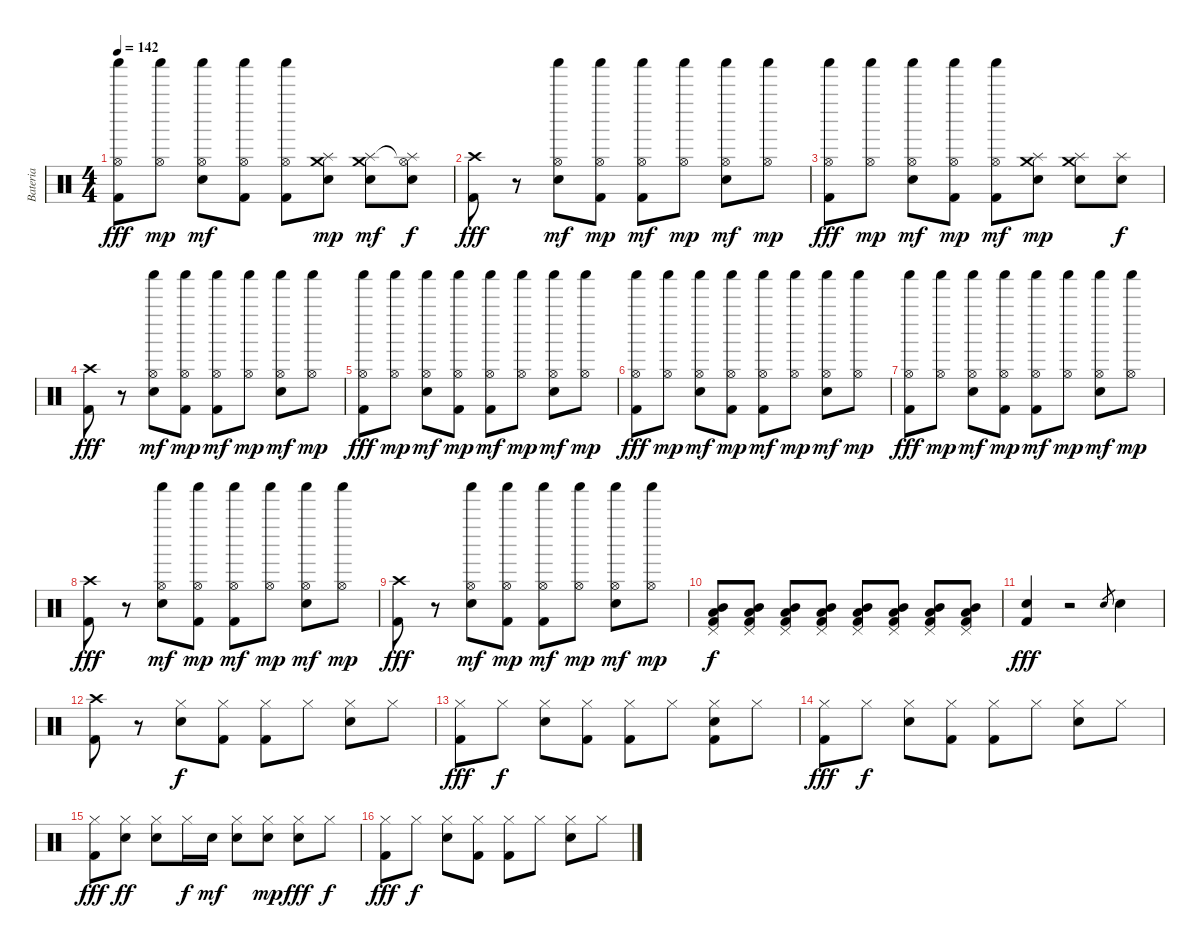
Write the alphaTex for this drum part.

\track ("Bateria" "Bateria") {instrument percussion}
\staff {score}
\articulation defaults
\ts (4 4)
\tempo 142
\clef neutral
\ks c
("Shaker (hit)" "Hi-Hat (open)" "Kick (hit) 2").8{dy fff} ("Shaker (hit)" "Hi-Hat (open)").8{dy mp} ("Shaker (hit)" "Hi-Hat (open)" "Electric Snare (hit)").8{dy mf} ("Shaker (hit)" "Hi-Hat (open)" "Kick (hit) 2").8 ("Shaker (hit)" "Hi-Hat (open)" "Kick (hit) 2").8 ("Crash medium (hit)" "Splash (hit)" "Electric Snare (hit)").8{dy mp} ("Crash medium (hit)" "Splash (hit)" "Electric Snare (hit)").8{dy mf} ("Splash (hit)" "Hi-Hat (open)"{t} "Electric Snare (hit)").8{dy f} |
("Crash high (hit)" "Kick (hit) 2").8{dy fff} r.8 ("Shaker (hit)" "Hi-Hat (open)" "Electric Snare (hit)").8{dy mf} ("Shaker (hit)" "Hi-Hat (open)" "Kick (hit) 2").8{dy mp} ("Shaker (hit)" "Hi-Hat (open)" "Kick (hit) 2").8{dy mf} ("Shaker (hit)" "Hi-Hat (open)").8{dy mp} ("Shaker (hit)" "Hi-Hat (open)" "Electric Snare (hit)").8{dy mf} ("Shaker (hit)" "Hi-Hat (open)").8{dy mp} |
("Shaker (hit)" "Hi-Hat (open)" "Kick (hit) 2").8{dy fff} ("Shaker (hit)" "Hi-Hat (open)").8{dy mp} ("Shaker (hit)" "Hi-Hat (open)" "Electric Snare (hit)").8{dy mf} ("Shaker (hit)" "Hi-Hat (open)" "Kick (hit) 2").8{dy mp} ("Shaker (hit)" "Hi-Hat (open)" "Kick (hit) 2").8{dy mf} ("Crash medium (hit)" "Splash (hit)" "Electric Snare (hit)").8{dy mp} ("Crash medium (hit)" "Splash (hit)" "Electric Snare (hit)").8 ("Splash (hit)" "Electric Snare (hit)").8{dy f} |
("Crash high (hit)" "Kick (hit) 2").8{dy fff} r.8 ("Shaker (hit)" "Hi-Hat (open)" "Electric Snare (hit)").8{dy mf} ("Shaker (hit)" "Hi-Hat (open)" "Kick (hit) 2").8{dy mp} ("Shaker (hit)" "Hi-Hat (open)" "Kick (hit) 2").8{dy mf} ("Shaker (hit)" "Hi-Hat (open)").8{dy mp} ("Shaker (hit)" "Hi-Hat (open)" "Electric Snare (hit)").8{dy mf} ("Shaker (hit)" "Hi-Hat (open)").8{dy mp} |
("Shaker (hit)" "Hi-Hat (open)" "Kick (hit) 2").8{dy fff} ("Shaker (hit)" "Hi-Hat (open)").8{dy mp} ("Shaker (hit)" "Hi-Hat (open)" "Electric Snare (hit)").8{dy mf} ("Shaker (hit)" "Hi-Hat (open)" "Kick (hit) 2").8{dy mp} ("Shaker (hit)" "Hi-Hat (open)" "Kick (hit) 2").8{dy mf} ("Shaker (hit)" "Hi-Hat (open)").8{dy mp} ("Shaker (hit)" "Hi-Hat (open)" "Electric Snare (hit)").8{dy mf} ("Shaker (hit)" "Hi-Hat (open)").8{dy mp} |
("Shaker (hit)" "Hi-Hat (open)" "Kick (hit) 2").8{dy fff} ("Shaker (hit)" "Hi-Hat (open)").8{dy mp} ("Shaker (hit)" "Hi-Hat (open)" "Electric Snare (hit)").8{dy mf} ("Shaker (hit)" "Hi-Hat (open)" "Kick (hit) 2").8{dy mp} ("Shaker (hit)" "Hi-Hat (open)" "Kick (hit) 2").8{dy mf} ("Shaker (hit)" "Hi-Hat (open)").8{dy mp} ("Shaker (hit)" "Hi-Hat (open)" "Electric Snare (hit)").8{dy mf} ("Shaker (hit)" "Hi-Hat (open)").8{dy mp} |
("Shaker (hit)" "Hi-Hat (open)" "Kick (hit) 2").8{dy fff} ("Shaker (hit)" "Hi-Hat (open)").8{dy mp} ("Shaker (hit)" "Hi-Hat (open)" "Electric Snare (hit)").8{dy mf} ("Shaker (hit)" "Hi-Hat (open)" "Kick (hit) 2").8{dy mp} ("Shaker (hit)" "Hi-Hat (open)" "Kick (hit) 2").8{dy mf} ("Shaker (hit)" "Hi-Hat (open)").8{dy mp} ("Shaker (hit)" "Hi-Hat (open)" "Electric Snare (hit)").8{dy mf} ("Shaker (hit)" "Hi-Hat (open)").8{dy mp} |
("Crash high (hit)" "Kick (hit) 2").8{dy fff} r.8 ("Shaker (hit)" "Hi-Hat (open)" "Electric Snare (hit)").8{dy mf} ("Shaker (hit)" "Hi-Hat (open)" "Kick (hit) 2").8{dy mp} ("Shaker (hit)" "Hi-Hat (open)" "Kick (hit) 2").8{dy mf} ("Shaker (hit)" "Hi-Hat (open)").8{dy mp} ("Shaker (hit)" "Hi-Hat (open)" "Electric Snare (hit)").8{dy mf} ("Shaker (hit)" "Hi-Hat (open)").8{dy mp} |
("Crash high (hit)" "Kick (hit) 2").8{dy fff} r.8 ("Shaker (hit)" "Hi-Hat (open)" "Electric Snare (hit)").8{dy mf} ("Shaker (hit)" "Hi-Hat (open)" "Kick (hit) 2").8{dy mp} ("Shaker (hit)" "Hi-Hat (open)" "Kick (hit) 2").8{dy mf} ("Shaker (hit)" "Hi-Hat (open)").8{dy mp} ("Shaker (hit)" "Hi-Hat (open)" "Electric Snare (hit)").8{dy mf} ("Shaker (hit)" "Hi-Hat (open)").8{dy mp} |
("Low Tom (hit)" "Mid Tom (hit)" "Pedal Hi-Hat (hit)" "Kick (hit) 2").8{dy f} ("Low Tom (hit)" "Mid Tom (hit)" "Pedal Hi-Hat (hit)" "Kick (hit) 2").8 ("Low Tom (hit)" "Mid Tom (hit)" "Pedal Hi-Hat (hit)" "Kick (hit) 2").8 ("Low Tom (hit)" "Mid Tom (hit)" "Pedal Hi-Hat (hit)" "Kick (hit) 2").8 ("Low Tom (hit)" "Mid Tom (hit)" "Pedal Hi-Hat (hit)" "Kick (hit) 2").8 ("Low Tom (hit)" "Mid Tom (hit)" "Pedal Hi-Hat (hit)" "Kick (hit) 2").8 ("Low Tom (hit)" "Mid Tom (hit)" "Pedal Hi-Hat (hit)" "Kick (hit) 2").8 ("Low Tom (hit)" "Mid Tom (hit)" "Pedal Hi-Hat (hit)" "Kick (hit) 2").8 |
("Electric Snare (hit)" "Kick (hit) 2").4{dy fff} r.2 "Electric Snare (hit)".8{gr} "Electric Snare (hit)".4 |
("Crash high (hit)" "Kick (hit) 2").8 r.8 ("Hi-Hat (closed)" "Electric Snare (hit)").8{dy f} ("Hi-Hat (closed)" "Kick (hit) 2").8 ("Hi-Hat (closed)" "Kick (hit) 2").8 "Hi-Hat (closed)".8 ("Hi-Hat (closed)" "Electric Snare (hit)").8 "Hi-Hat (closed)".8 |
("Hi-Hat (closed)" "Kick (hit) 2").8{dy fff} "Hi-Hat (closed)".8{dy f} ("Hi-Hat (closed)" "Electric Snare (hit)").8 ("Hi-Hat (closed)" "Kick (hit) 2").8 ("Hi-Hat (closed)" "Kick (hit) 2").8 "Hi-Hat (closed)".8 ("Hi-Hat (closed)" "Electric Snare (hit)" "Kick (hit) 2").8 "Hi-Hat (closed)".8 |
("Hi-Hat (closed)" "Kick (hit) 2").8{dy fff} "Hi-Hat (closed)".8{dy f} ("Hi-Hat (closed)" "Electric Snare (hit)").8 ("Hi-Hat (closed)" "Kick (hit) 2").8 ("Hi-Hat (closed)" "Kick (hit) 2").8 "Hi-Hat (closed)".8 ("Hi-Hat (closed)" "Electric Snare (hit)").8 "Hi-Hat (closed)".8 |
("Hi-Hat (closed)" "Kick (hit) 2").8{dy fff} ("Hi-Hat (closed)" "Electric Snare (hit)").8{dy ff} ("Hi-Hat (closed)" "Electric Snare (hit)").8 "Hi-Hat (closed)".16{dy f} "Electric Snare (hit)".16{dy mf} ("Hi-Hat (closed)" "Electric Snare (hit)").8 ("Hi-Hat (closed)" "Electric Snare (hit)").8{dy mp} ("Hi-Hat (closed)" "Electric Snare (hit)").8{dy fff} "Hi-Hat (closed)".8{dy f} |
("Hi-Hat (closed)" "Kick (hit) 2").8{dy fff} "Hi-Hat (closed)".8{dy f} ("Hi-Hat (closed)" "Electric Snare (hit)").8 ("Hi-Hat (closed)" "Kick (hit) 2").8 ("Hi-Hat (closed)" "Kick (hit) 2").8 "Hi-Hat (closed)".8 ("Hi-Hat (closed)" "Electric Snare (hit)").8 "Hi-Hat (closed)".8
